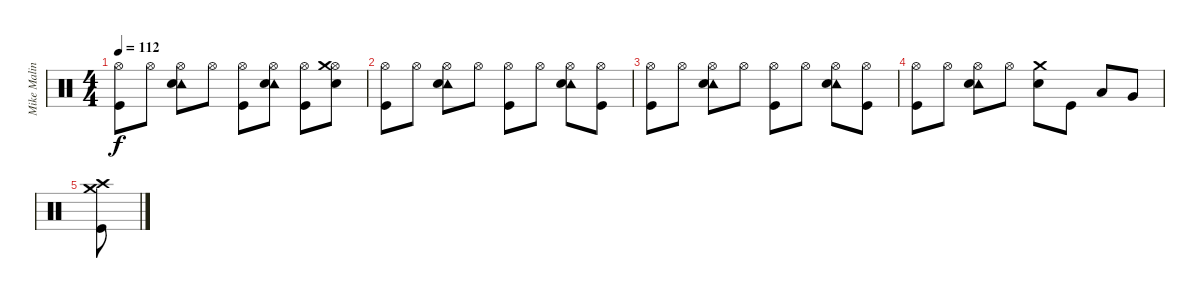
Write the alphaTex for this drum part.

\track ("Mike Malinin - Percussion" "Mike Malin") {instrument percussion}
\staff {score}
\articulation defaults
\ts (4 4)
\tempo 112
\clef neutral
\ks c
("Hi-Hat (open)" "Kick (hit)").8{dy f} "Hi-Hat (open)".8 ("Hi-Hat (open)" "Tambourine (hit)" "Snare (hit) 2").8 "Hi-Hat (open)".8 ("Hi-Hat (open)" "Kick (hit)").8 ("Hi-Hat (open)" "Tambourine (hit)" "Snare (hit) 2").8 ("Hi-Hat (open)" "Kick (hit)").8 ("Hi-Hat (open)" "Crash medium (hit)" "Snare (hit) 2").8 |
("Hi-Hat (open)" "Kick (hit)").8 "Hi-Hat (open)".8 ("Hi-Hat (open)" "Tambourine (hit)" "Snare (hit) 2").8 "Hi-Hat (open)".8 ("Hi-Hat (open)" "Kick (hit)").8 "Hi-Hat (open)".8 ("Hi-Hat (open)" "Tambourine (hit)" "Snare (hit) 2").8 ("Hi-Hat (open)" "Kick (hit)").8 |
("Hi-Hat (open)" "Kick (hit)").8 "Hi-Hat (open)".8 ("Hi-Hat (open)" "Tambourine (hit)" "Snare (hit) 2").8 "Hi-Hat (open)".8 ("Hi-Hat (open)" "Kick (hit)").8 "Hi-Hat (open)".8 ("Hi-Hat (open)" "Tambourine (hit)" "Snare (hit) 2").8 ("Hi-Hat (open)" "Kick (hit)").8 |
("Hi-Hat (open)" "Kick (hit)").8 "Hi-Hat (open)".8 ("Hi-Hat (open)" "Tambourine (hit)" "Snare (hit) 2").8 "Hi-Hat (open)".8 ("Crash medium (hit)" "Snare (hit) 2").8 "Kick (hit)".8 "Low Tom (hit)".8 "Very Low Tom (hit)".8 |
("Crash medium (hit)" "Crash high (hit)" "Kick (hit)").8
